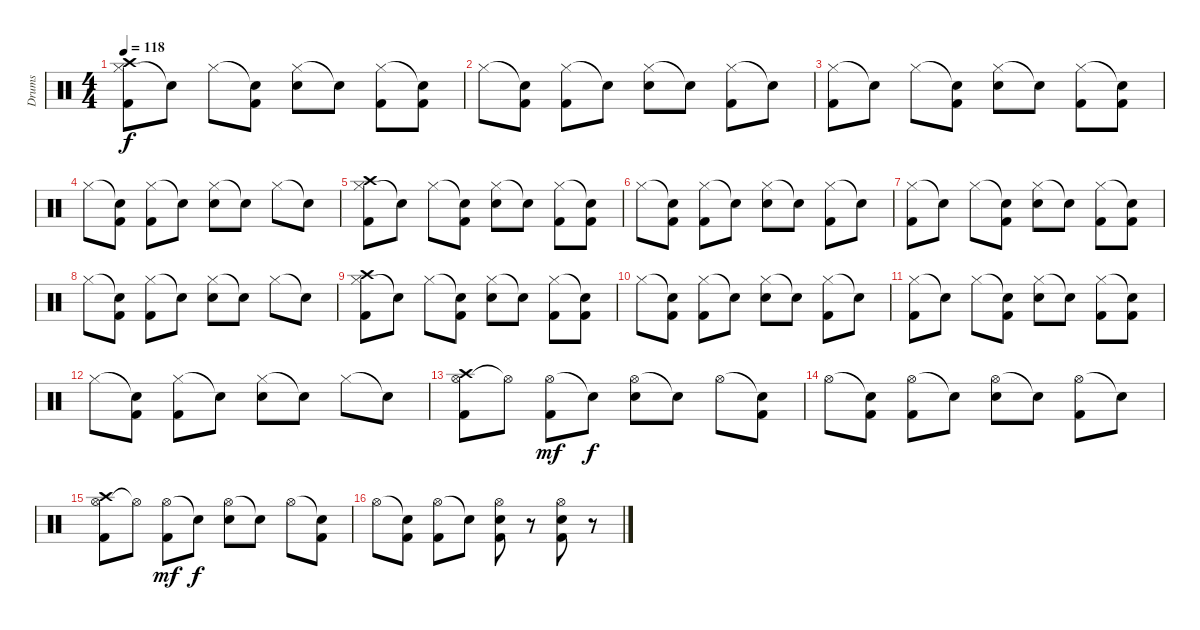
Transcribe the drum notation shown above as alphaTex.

\track ("Drums" "Drums") {instrument percussion}
\staff {score}
\articulation defaults
\ts (4 4)
\tempo 118
\clef neutral
\ks c
("Hi-Hat (closed)" "Kick (hit) 2" "Crash high (hit)").8{dy f} "Snare (hit)"{t}.8 "Hi-Hat (closed)".8 ("Snare (hit)"{t} "Kick (hit) 2").8 ("Hi-Hat (closed)" "Electric Snare (hit)").8 "Snare (hit)"{t}.8 ("Hi-Hat (closed)" "Kick (hit) 2").8 ("Snare (hit)"{t} "Kick (hit) 2").8 |
"Hi-Hat (closed)".8 ("Snare (hit)"{t} "Kick (hit) 2").8 ("Hi-Hat (closed)" "Kick (hit) 2").8 "Snare (hit)"{t}.8 ("Hi-Hat (closed)" "Electric Snare (hit)").8 "Snare (hit)"{t}.8 ("Hi-Hat (closed)" "Kick (hit) 2").8 "Snare (hit)"{t}.8 |
("Hi-Hat (closed)" "Kick (hit) 2").8 "Snare (hit)"{t}.8 "Hi-Hat (closed)".8 ("Snare (hit)"{t} "Kick (hit) 2").8 ("Hi-Hat (closed)" "Electric Snare (hit)").8 "Snare (hit)"{t}.8 ("Hi-Hat (closed)" "Kick (hit) 2").8 ("Snare (hit)"{t} "Kick (hit) 2").8 |
"Hi-Hat (closed)".8 ("Snare (hit)"{t} "Kick (hit) 2").8 ("Hi-Hat (closed)" "Kick (hit) 2").8 "Snare (hit)"{t}.8 ("Hi-Hat (closed)" "Electric Snare (hit)").8 "Snare (hit)"{t}.8 "Hi-Hat (closed)".8 "Snare (hit)"{t}.8 |
("Hi-Hat (closed)" "Kick (hit) 2" "Crash high (hit)").8 "Snare (hit)"{t}.8 "Hi-Hat (closed)".8 ("Snare (hit)"{t} "Kick (hit) 2").8 ("Hi-Hat (closed)" "Electric Snare (hit)").8 "Snare (hit)"{t}.8 ("Hi-Hat (closed)" "Kick (hit) 2").8 ("Snare (hit)"{t} "Kick (hit) 2").8 |
"Hi-Hat (closed)".8 ("Snare (hit)"{t} "Kick (hit) 2").8 ("Hi-Hat (closed)" "Kick (hit) 2").8 "Snare (hit)"{t}.8 ("Hi-Hat (closed)" "Electric Snare (hit)").8 "Snare (hit)"{t}.8 ("Hi-Hat (closed)" "Kick (hit) 2").8 "Snare (hit)"{t}.8 |
("Hi-Hat (closed)" "Kick (hit) 2").8 "Snare (hit)"{t}.8 "Hi-Hat (closed)".8 ("Snare (hit)"{t} "Kick (hit) 2").8 ("Hi-Hat (closed)" "Electric Snare (hit)").8 "Snare (hit)"{t}.8 ("Hi-Hat (closed)" "Kick (hit) 2").8 ("Snare (hit)"{t} "Kick (hit) 2").8 |
"Hi-Hat (closed)".8 ("Snare (hit)"{t} "Kick (hit) 2").8 ("Hi-Hat (closed)" "Kick (hit) 2").8 "Snare (hit)"{t}.8 ("Hi-Hat (closed)" "Electric Snare (hit)").8 "Snare (hit)"{t}.8 "Hi-Hat (closed)".8 "Snare (hit)"{t}.8 |
("Hi-Hat (closed)" "Kick (hit) 2" "Crash high (hit)").8 "Snare (hit)"{t}.8 "Hi-Hat (closed)".8 ("Snare (hit)"{t} "Kick (hit) 2").8 ("Hi-Hat (closed)" "Electric Snare (hit)").8 "Snare (hit)"{t}.8 ("Hi-Hat (closed)" "Kick (hit) 2").8 ("Snare (hit)"{t} "Kick (hit) 2").8 |
"Hi-Hat (closed)".8 ("Snare (hit)"{t} "Kick (hit) 2").8 ("Hi-Hat (closed)" "Kick (hit) 2").8 "Snare (hit)"{t}.8 ("Hi-Hat (closed)" "Electric Snare (hit)").8 "Snare (hit)"{t}.8 ("Hi-Hat (closed)" "Kick (hit) 2").8 "Snare (hit)"{t}.8 |
("Hi-Hat (closed)" "Kick (hit) 2").8 "Snare (hit)"{t}.8 "Hi-Hat (closed)".8 ("Snare (hit)"{t} "Kick (hit) 2").8 ("Hi-Hat (closed)" "Electric Snare (hit)").8 "Snare (hit)"{t}.8 ("Hi-Hat (closed)" "Kick (hit) 2").8 ("Snare (hit)"{t} "Kick (hit) 2").8 |
"Hi-Hat (closed)".8 ("Snare (hit)"{t} "Kick (hit) 2").8 ("Hi-Hat (closed)" "Kick (hit) 2").8 "Snare (hit)"{t}.8 ("Hi-Hat (closed)" "Electric Snare (hit)").8 "Snare (hit)"{t}.8 "Hi-Hat (closed)".8 "Snare (hit)"{t}.8 |
("Hi-Hat (open)" "Kick (hit) 2" "Crash high (hit)").8 "Hi-Hat (open)"{t}.8 ("Hi-Hat (open)" "Kick (hit) 2").8{dy mf} "Snare (hit)"{t}.8{dy f} ("Hi-Hat (open)" "Electric Snare (hit)").8 "Snare (hit)"{t}.8 "Hi-Hat (open)".8 ("Snare (hit)"{t} "Kick (hit) 2").8 |
"Hi-Hat (open)".8 ("Snare (hit)"{t} "Kick (hit) 2").8 ("Hi-Hat (open)" "Kick (hit) 2").8 "Snare (hit)"{t}.8 ("Hi-Hat (open)" "Electric Snare (hit)").8 "Snare (hit)"{t}.8 ("Hi-Hat (open)" "Kick (hit) 2").8 "Snare (hit)"{t}.8 |
("Hi-Hat (open)" "Kick (hit) 2" "Crash high (hit)").8 "Hi-Hat (open)"{t}.8 ("Hi-Hat (open)" "Kick (hit) 2").8{dy mf} "Snare (hit)"{t}.8{dy f} ("Hi-Hat (open)" "Electric Snare (hit)").8 "Snare (hit)"{t}.8 "Hi-Hat (open)".8 ("Snare (hit)"{t} "Kick (hit) 2").8 |
"Hi-Hat (open)".8 ("Snare (hit)"{t} "Kick (hit) 2").8 ("Hi-Hat (open)" "Kick (hit) 2").8 "Snare (hit)"{t}.8 ("Hi-Hat (open)" "Kick (hit) 2" "Electric Snare (hit)").8 r.8 ("Hi-Hat (open)" "Kick (hit) 2" "Electric Snare (hit)").8 r.8
